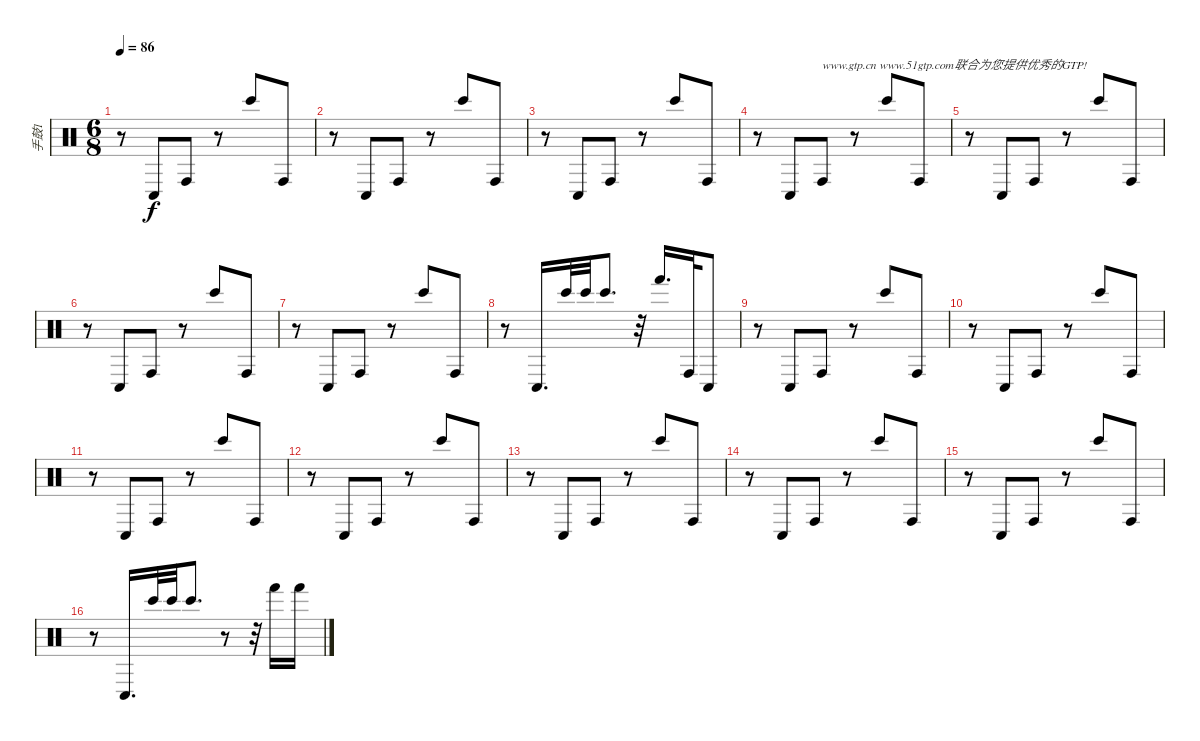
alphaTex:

\track ("手鼓1" "手鼓1") {instrument percussion}
\staff {score}
\articulation defaults
\ts (6 8)
\tempo 86
\clef neutral
\ks c
r.8{dy f} "Conga low (hit)".8 "Conga high (hit)".8 r.8 "Bongo High (hit)".8 "Conga high (hit)".8 |
r.8 "Conga low (hit)".8 "Conga high (hit)".8 r.8 "Bongo High (hit)".8 "Conga high (hit)".8 |
r.8 "Conga low (hit)".8 "Conga high (hit)".8 r.8 "Bongo High (hit)".8 "Conga high (hit)".8 |
r.8 "Conga low (hit)".8 "Conga high (hit)".8{txt "www.gtp.cn www.51gtp.com联合为您提供优秀的GTP!"} r.8 "Bongo High (hit)".8 "Conga high (hit)".8 |
r.8 "Conga low (hit)".8 "Conga high (hit)".8 r.8 "Bongo High (hit)".8 "Conga high (hit)".8 |
r.8 "Conga low (hit)".8 "Conga high (hit)".8 r.8 "Bongo High (hit)".8 "Conga high (hit)".8 |
r.8 "Conga low (hit)".8 "Conga high (hit)".8 r.8 "Bongo High (hit)".8 "Conga high (hit)".8 |
r.8 "Conga low (hit)".16{d} "Bongo High (hit)".32 "Bongo High (hit)".32 "Bongo High (hit)".8{d} r.32 "Hand (hit)".16{d} "Conga high (hit)".32 "Conga low (hit)".8 |
r.8 "Conga low (hit)".8 "Conga high (hit)".8 r.8 "Bongo High (hit)".8 "Conga high (hit)".8 |
r.8 "Conga low (hit)".8 "Conga high (hit)".8 r.8 "Bongo High (hit)".8 "Conga high (hit)".8 |
r.8 "Conga low (hit)".8 "Conga high (hit)".8 r.8 "Bongo High (hit)".8 "Conga high (hit)".8 |
r.8 "Conga low (hit)".8 "Conga high (hit)".8 r.8 "Bongo High (hit)".8 "Conga high (hit)".8 |
r.8 "Conga low (hit)".8 "Conga high (hit)".8 r.8 "Bongo High (hit)".8 "Conga high (hit)".8 |
r.8 "Conga low (hit)".8 "Conga high (hit)".8 r.8 "Bongo High (hit)".8 "Conga high (hit)".8 |
r.8 "Conga low (hit)".8 "Conga high (hit)".8 r.8 "Bongo High (hit)".8 "Conga high (hit)".8 |
r.8 "Conga low (hit)".16{d} "Bongo High (hit)".32 "Bongo High (hit)".32 "Bongo High (hit)".8{d} r.8 r.32 "Hand (hit)".16 "Hand (hit)".16
